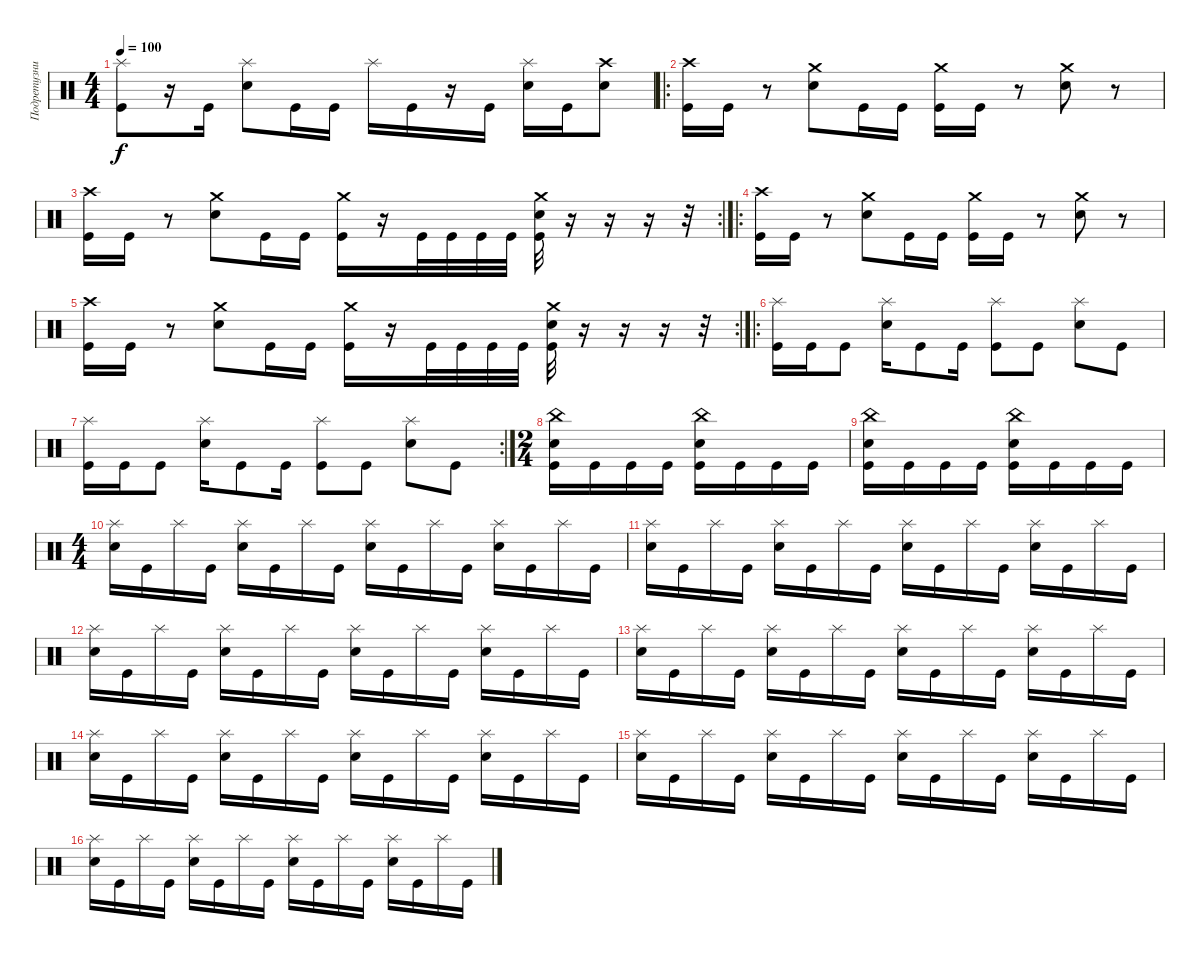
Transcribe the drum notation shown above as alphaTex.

\track ("Подретузник" "Подретузни") {instrument percussion}
\staff {score}
\articulation defaults
\ts (4 4)
\tempo 100
\clef neutral
\ks c
("Splash (hit)" "Kick (hit)").8{dy f} r.16 "Kick (hit)".16 ("Splash (hit)" "Electric Snare (hit)").8 "Kick (hit)".16 "Kick (hit)".16 "Splash (hit)".16 "Kick (hit)".16 r.16 "Kick (hit)".16 ("Splash (hit)" "Electric Snare (hit)").16 "Kick (hit)".16 ("Crash high (hit)" "Electric Snare (hit)").8 |
\ro
("Crash high (hit)" "Kick (hit)").16 "Kick (hit)".16 r.8 ("Crash medium (hit)" "Electric Snare (hit)").8 "Kick (hit)".16 "Kick (hit)".16 ("Crash medium (hit)" "Kick (hit)").16 "Kick (hit)".16 r.8 ("Crash medium (hit)" "Electric Snare (hit)").8 r.8 |
\rc 2
("Crash high (hit)" "Kick (hit)").16 "Kick (hit)".16 r.8 ("Crash medium (hit)" "Electric Snare (hit)").8 "Kick (hit)".16 "Kick (hit)".16 ("Crash medium (hit)" "Kick (hit)").16 r.16 "Kick (hit)".32 "Kick (hit)".32 "Kick (hit)".32 "Kick (hit)".32 ("Crash medium (hit)" "Electric Snare (hit)" "Kick (hit)").32 r.16 r.16 r.16 r.32 |
\ro
("Crash high (hit)" "Kick (hit)").16 "Kick (hit)".16 r.8 ("Crash medium (hit)" "Electric Snare (hit)").8 "Kick (hit)".16 "Kick (hit)".16 ("Crash medium (hit)" "Kick (hit)").16 "Kick (hit)".16 r.8 ("Crash medium (hit)" "Electric Snare (hit)").8 r.8 |
\rc 2
("Crash high (hit)" "Kick (hit)").16 "Kick (hit)".16 r.8 ("Crash medium (hit)" "Electric Snare (hit)").8 "Kick (hit)".16 "Kick (hit)".16 ("Crash medium (hit)" "Kick (hit)").16 r.16 "Kick (hit)".32 "Kick (hit)".32 "Kick (hit)".32 "Kick (hit)".32 ("Crash medium (hit)" "Electric Snare (hit)" "Kick (hit)").32 r.16 r.16 r.16 r.32 |
\ro
("Splash (hit)" "Kick (hit)").16 "Kick (hit)".16 "Kick (hit)".8 ("Splash (hit)" "Electric Snare (hit)").16 "Kick (hit)".8 "Kick (hit)".16 ("Splash (hit)" "Kick (hit)").8 "Kick (hit)".8 ("Splash (hit)" "Electric Snare (hit)").8 "Kick (hit)".8 |
\rc 2
("Splash (hit)" "Kick (hit)").16 "Kick (hit)".16 "Kick (hit)".8 ("Splash (hit)" "Electric Snare (hit)").16 "Kick (hit)".8 "Kick (hit)".16 ("Splash (hit)" "Kick (hit)").8 "Kick (hit)".8 ("Splash (hit)" "Electric Snare (hit)").8 "Kick (hit)".8 |
\ts (2 4)
("China (hit)" "Electric Snare (hit)" "Kick (hit)").16 "Kick (hit)".16 "Kick (hit)".16 "Kick (hit)".16 ("China (hit)" "Electric Snare (hit)" "Kick (hit)").16 "Kick (hit)".16 "Kick (hit)".16 "Kick (hit)".16 |
("China (hit)" "Electric Snare (hit)" "Kick (hit)").16 "Kick (hit)".16 "Kick (hit)".16 "Kick (hit)".16 ("China (hit)" "Electric Snare (hit)" "Kick (hit)").16 "Kick (hit)".16 "Kick (hit)".16 "Kick (hit)".16 |
\ts (4 4)
("Splash (hit)" "Electric Snare (hit)").16 "Kick (hit)".16 "Splash (hit)".16 "Kick (hit)".16 ("Splash (hit)" "Electric Snare (hit)").16 "Kick (hit)".16 "Splash (hit)".16 "Kick (hit)".16 ("Splash (hit)" "Electric Snare (hit)").16 "Kick (hit)".16 "Splash (hit)".16 "Kick (hit)".16 ("Splash (hit)" "Electric Snare (hit)").16 "Kick (hit)".16 "Splash (hit)".16 "Kick (hit)".16 |
("Splash (hit)" "Electric Snare (hit)").16 "Kick (hit)".16 "Splash (hit)".16 "Kick (hit)".16 ("Splash (hit)" "Electric Snare (hit)").16 "Kick (hit)".16 "Splash (hit)".16 "Kick (hit)".16 ("Splash (hit)" "Electric Snare (hit)").16 "Kick (hit)".16 "Splash (hit)".16 "Kick (hit)".16 ("Splash (hit)" "Electric Snare (hit)").16 "Kick (hit)".16 "Splash (hit)".16 "Kick (hit)".16 |
("Splash (hit)" "Electric Snare (hit)").16 "Kick (hit)".16 "Splash (hit)".16 "Kick (hit)".16 ("Splash (hit)" "Electric Snare (hit)").16 "Kick (hit)".16 "Splash (hit)".16 "Kick (hit)".16 ("Splash (hit)" "Electric Snare (hit)").16 "Kick (hit)".16 "Splash (hit)".16 "Kick (hit)".16 ("Splash (hit)" "Electric Snare (hit)").16 "Kick (hit)".16 "Splash (hit)".16 "Kick (hit)".16 |
("Splash (hit)" "Electric Snare (hit)").16 "Kick (hit)".16 "Splash (hit)".16 "Kick (hit)".16 ("Splash (hit)" "Electric Snare (hit)").16 "Kick (hit)".16 "Splash (hit)".16 "Kick (hit)".16 ("Splash (hit)" "Electric Snare (hit)").16 "Kick (hit)".16 "Splash (hit)".16 "Kick (hit)".16 ("Splash (hit)" "Electric Snare (hit)").16 "Kick (hit)".16 "Splash (hit)".16 "Kick (hit)".16 |
("Splash (hit)" "Electric Snare (hit)").16 "Kick (hit)".16 "Splash (hit)".16 "Kick (hit)".16 ("Splash (hit)" "Electric Snare (hit)").16 "Kick (hit)".16 "Splash (hit)".16 "Kick (hit)".16 ("Splash (hit)" "Electric Snare (hit)").16 "Kick (hit)".16 "Splash (hit)".16 "Kick (hit)".16 ("Splash (hit)" "Electric Snare (hit)").16 "Kick (hit)".16 "Splash (hit)".16 "Kick (hit)".16 |
("Splash (hit)" "Electric Snare (hit)").16 "Kick (hit)".16 "Splash (hit)".16 "Kick (hit)".16 ("Splash (hit)" "Electric Snare (hit)").16 "Kick (hit)".16 "Splash (hit)".16 "Kick (hit)".16 ("Splash (hit)" "Electric Snare (hit)").16 "Kick (hit)".16 "Splash (hit)".16 "Kick (hit)".16 ("Splash (hit)" "Electric Snare (hit)").16 "Kick (hit)".16 "Splash (hit)".16 "Kick (hit)".16 |
("Splash (hit)" "Electric Snare (hit)").16 "Kick (hit)".16 "Splash (hit)".16 "Kick (hit)".16 ("Splash (hit)" "Electric Snare (hit)").16 "Kick (hit)".16 "Splash (hit)".16 "Kick (hit)".16 ("Splash (hit)" "Electric Snare (hit)").16 "Kick (hit)".16 "Splash (hit)".16 "Kick (hit)".16 ("Splash (hit)" "Electric Snare (hit)").16 "Kick (hit)".16 "Splash (hit)".16 "Kick (hit)".16
